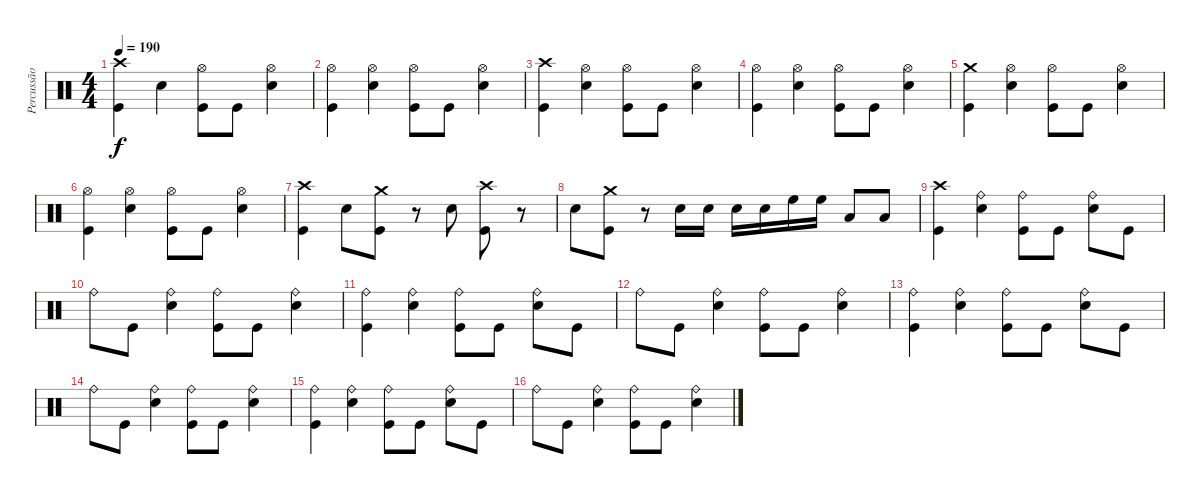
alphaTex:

\track ("Percussão" "Percussão") {instrument percussion}
\staff {score}
\articulation defaults
\ts (4 4)
\tempo 190
\clef neutral
\ks c
("Crash high (hit)" "Kick (hit)").4{dy f} "Snare (hit) 2".4 ("Hi-Hat (open)" "Kick (hit)").8 "Kick (hit)".8 ("Hi-Hat (open)" "Snare (hit) 2").4 |
("Hi-Hat (open)" "Kick (hit)").4 ("Hi-Hat (open)" "Snare (hit) 2").4 ("Hi-Hat (open)" "Kick (hit)").8 "Kick (hit)".8 ("Hi-Hat (open)" "Snare (hit) 2").4 |
("Crash high (hit)" "Kick (hit)").4 ("Hi-Hat (open)" "Snare (hit) 2").4 ("Hi-Hat (open)" "Kick (hit)").8 "Kick (hit)".8 ("Hi-Hat (open)" "Snare (hit) 2").4 |
("Hi-Hat (open)" "Kick (hit)").4 ("Hi-Hat (open)" "Snare (hit) 2").4 ("Hi-Hat (open)" "Kick (hit)").8 "Kick (hit)".8 ("Hi-Hat (open)" "Snare (hit) 2").4 |
("Crash medium (hit)" "Kick (hit)").4 ("Hi-Hat (open)" "Snare (hit) 2").4 ("Hi-Hat (open)" "Kick (hit)").8 "Kick (hit)".8 ("Hi-Hat (open)" "Snare (hit) 2").4 |
("Hi-Hat (open)" "Kick (hit)").4 ("Hi-Hat (open)" "Snare (hit) 2").4 ("Hi-Hat (open)" "Kick (hit)").8 "Kick (hit)".8 ("Hi-Hat (open)" "Snare (hit) 2").4 |
("Crash high (hit)" "Kick (hit)").4 "Snare (hit) 2".8 ("Crash medium (hit)" "Kick (hit)").8 r.8 "Snare (hit) 2".8 ("Crash high (hit)" "Kick (hit)").8 r.8 |
"Snare (hit) 2".8 ("Crash medium (hit)" "Kick (hit)").8 r.8 "Snare (hit) 2".16 "Snare (hit) 2".16 "Snare (hit) 2".16 "Snare (hit) 2".16 "High Floor Tom (hit)".16 "High Floor Tom (hit)".16 "Low Floor Tom (hit)".8 "Low Floor Tom (hit)".8 |
("Crash high (hit)" "Kick (hit)").4 ("Ride (bell)" "Snare (hit) 2").4 ("Ride (bell)" "Kick (hit)").8 "Kick (hit)".8 ("Ride (bell)" "Snare (hit) 2").8 "Kick (hit)".8 |
"Ride (bell)".8 "Kick (hit)".8 ("Ride (bell)" "Snare (hit) 2").4 ("Ride (bell)" "Kick (hit)").8 "Kick (hit)".8 ("Ride (bell)" "Snare (hit) 2").4 |
("Ride (bell)" "Kick (hit)").4 ("Ride (bell)" "Snare (hit) 2").4 ("Ride (bell)" "Kick (hit)").8 "Kick (hit)".8 ("Ride (bell)" "Snare (hit) 2").8 "Kick (hit)".8 |
"Ride (bell)".8 "Kick (hit)".8 ("Ride (bell)" "Snare (hit) 2").4 ("Ride (bell)" "Kick (hit)").8 "Kick (hit)".8 ("Ride (bell)" "Snare (hit) 2").4 |
("Ride (bell)" "Kick (hit)").4 ("Ride (bell)" "Snare (hit) 2").4 ("Ride (bell)" "Kick (hit)").8 "Kick (hit)".8 ("Ride (bell)" "Snare (hit) 2").8 "Kick (hit)".8 |
"Ride (bell)".8 "Kick (hit)".8 ("Ride (bell)" "Snare (hit) 2").4 ("Ride (bell)" "Kick (hit)").8 "Kick (hit)".8 ("Ride (bell)" "Snare (hit) 2").4 |
("Ride (bell)" "Kick (hit)").4 ("Ride (bell)" "Snare (hit) 2").4 ("Ride (bell)" "Kick (hit)").8 "Kick (hit)".8 ("Ride (bell)" "Snare (hit) 2").8 "Kick (hit)".8 |
"Ride (bell)".8 "Kick (hit)".8 ("Ride (bell)" "Snare (hit) 2").4 ("Ride (bell)" "Kick (hit)").8 "Kick (hit)".8 ("Ride (bell)" "Snare (hit) 2").4
